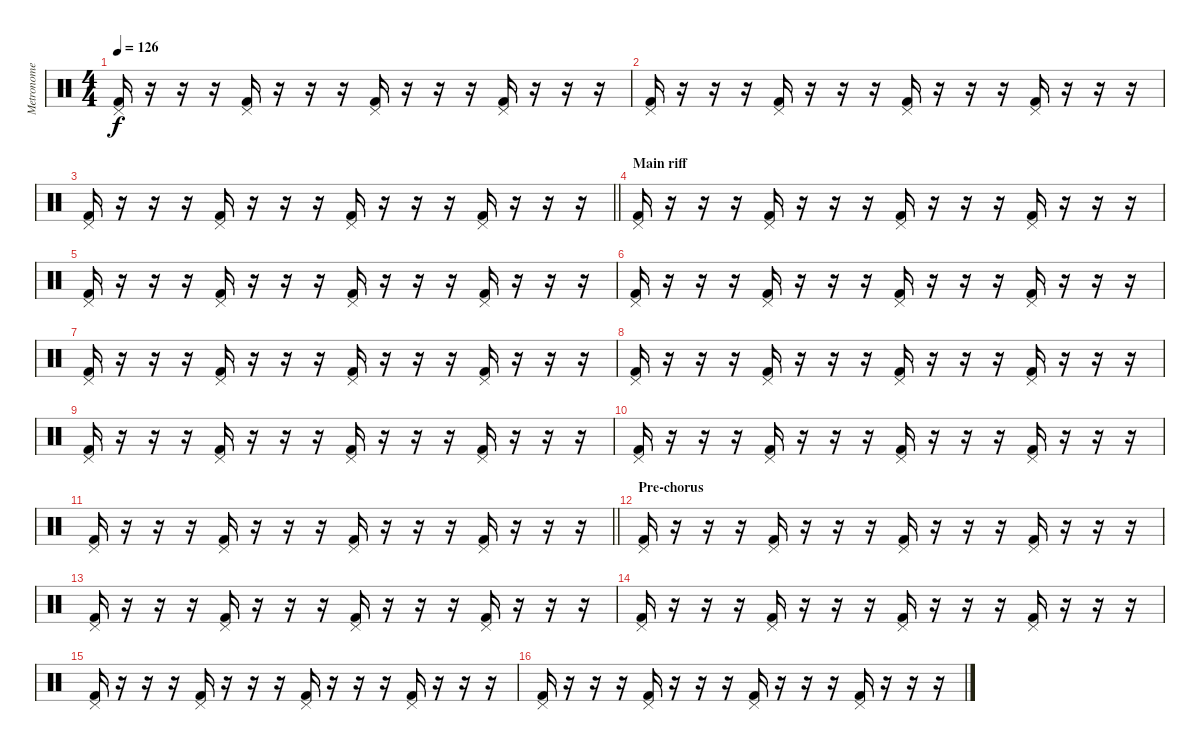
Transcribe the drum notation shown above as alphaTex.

\track ("Metronome" "Metronome") {mute instrument percussion}
\staff {score}
\articulation defaults
\ts (4 4)
\tempo 126
\clef neutral
\ks c
("Pedal Hi-Hat (hit)" "Kick (hit) 2").16{dy f} r.16 r.16 r.16 ("Pedal Hi-Hat (hit)" "Kick (hit) 2").16 r.16 r.16 r.16 ("Pedal Hi-Hat (hit)" "Kick (hit) 2").16 r.16 r.16 r.16 ("Pedal Hi-Hat (hit)" "Kick (hit) 2").16 r.16 r.16 r.16 |
("Pedal Hi-Hat (hit)" "Kick (hit) 2").16 r.16 r.16 r.16 ("Pedal Hi-Hat (hit)" "Kick (hit) 2").16 r.16 r.16 r.16 ("Pedal Hi-Hat (hit)" "Kick (hit) 2").16 r.16 r.16 r.16 ("Pedal Hi-Hat (hit)" "Kick (hit) 2").16 r.16 r.16 r.16 |
\barLineRight lightlight
("Pedal Hi-Hat (hit)" "Kick (hit) 2").16 r.16 r.16 r.16 ("Pedal Hi-Hat (hit)" "Kick (hit) 2").16 r.16 r.16 r.16 ("Pedal Hi-Hat (hit)" "Kick (hit) 2").16 r.16 r.16 r.16 ("Pedal Hi-Hat (hit)" "Kick (hit) 2").16 r.16 r.16 r.16 |
\section ("" "Main riff")
("Pedal Hi-Hat (hit)" "Kick (hit) 2").16 r.16 r.16 r.16 ("Pedal Hi-Hat (hit)" "Kick (hit) 2").16 r.16 r.16 r.16 ("Pedal Hi-Hat (hit)" "Kick (hit) 2").16 r.16 r.16 r.16 ("Pedal Hi-Hat (hit)" "Kick (hit) 2").16 r.16 r.16 r.16 |
("Pedal Hi-Hat (hit)" "Kick (hit) 2").16 r.16 r.16 r.16 ("Pedal Hi-Hat (hit)" "Kick (hit) 2").16 r.16 r.16 r.16 ("Pedal Hi-Hat (hit)" "Kick (hit) 2").16 r.16 r.16 r.16 ("Pedal Hi-Hat (hit)" "Kick (hit) 2").16 r.16 r.16 r.16 |
("Pedal Hi-Hat (hit)" "Kick (hit) 2").16 r.16 r.16 r.16 ("Pedal Hi-Hat (hit)" "Kick (hit) 2").16 r.16 r.16 r.16 ("Pedal Hi-Hat (hit)" "Kick (hit) 2").16 r.16 r.16 r.16 ("Pedal Hi-Hat (hit)" "Kick (hit) 2").16 r.16 r.16 r.16 |
("Pedal Hi-Hat (hit)" "Kick (hit) 2").16 r.16 r.16 r.16 ("Pedal Hi-Hat (hit)" "Kick (hit) 2").16 r.16 r.16 r.16 ("Pedal Hi-Hat (hit)" "Kick (hit) 2").16 r.16 r.16 r.16 ("Pedal Hi-Hat (hit)" "Kick (hit) 2").16 r.16 r.16 r.16 |
("Pedal Hi-Hat (hit)" "Kick (hit) 2").16 r.16 r.16 r.16 ("Pedal Hi-Hat (hit)" "Kick (hit) 2").16 r.16 r.16 r.16 ("Pedal Hi-Hat (hit)" "Kick (hit) 2").16 r.16 r.16 r.16 ("Pedal Hi-Hat (hit)" "Kick (hit) 2").16 r.16 r.16 r.16 |
("Pedal Hi-Hat (hit)" "Kick (hit) 2").16 r.16 r.16 r.16 ("Pedal Hi-Hat (hit)" "Kick (hit) 2").16 r.16 r.16 r.16 ("Pedal Hi-Hat (hit)" "Kick (hit) 2").16 r.16 r.16 r.16 ("Pedal Hi-Hat (hit)" "Kick (hit) 2").16 r.16 r.16 r.16 |
("Pedal Hi-Hat (hit)" "Kick (hit) 2").16 r.16 r.16 r.16 ("Pedal Hi-Hat (hit)" "Kick (hit) 2").16 r.16 r.16 r.16 ("Pedal Hi-Hat (hit)" "Kick (hit) 2").16 r.16 r.16 r.16 ("Pedal Hi-Hat (hit)" "Kick (hit) 2").16 r.16 r.16 r.16 |
\barLineRight lightlight
("Pedal Hi-Hat (hit)" "Kick (hit) 2").16 r.16 r.16 r.16 ("Pedal Hi-Hat (hit)" "Kick (hit) 2").16 r.16 r.16 r.16 ("Pedal Hi-Hat (hit)" "Kick (hit) 2").16 r.16 r.16 r.16 ("Pedal Hi-Hat (hit)" "Kick (hit) 2").16 r.16 r.16 r.16 |
\section ("" "Pre-chorus")
("Pedal Hi-Hat (hit)" "Kick (hit) 2").16 r.16 r.16 r.16 ("Pedal Hi-Hat (hit)" "Kick (hit) 2").16 r.16 r.16 r.16 ("Pedal Hi-Hat (hit)" "Kick (hit) 2").16 r.16 r.16 r.16 ("Pedal Hi-Hat (hit)" "Kick (hit) 2").16 r.16 r.16 r.16 |
("Pedal Hi-Hat (hit)" "Kick (hit) 2").16 r.16 r.16 r.16 ("Pedal Hi-Hat (hit)" "Kick (hit) 2").16 r.16 r.16 r.16 ("Pedal Hi-Hat (hit)" "Kick (hit) 2").16 r.16 r.16 r.16 ("Pedal Hi-Hat (hit)" "Kick (hit) 2").16 r.16 r.16 r.16 |
("Pedal Hi-Hat (hit)" "Kick (hit) 2").16 r.16 r.16 r.16 ("Pedal Hi-Hat (hit)" "Kick (hit) 2").16 r.16 r.16 r.16 ("Pedal Hi-Hat (hit)" "Kick (hit) 2").16 r.16 r.16 r.16 ("Pedal Hi-Hat (hit)" "Kick (hit) 2").16 r.16 r.16 r.16 |
("Pedal Hi-Hat (hit)" "Kick (hit) 2").16 r.16 r.16 r.16 ("Pedal Hi-Hat (hit)" "Kick (hit) 2").16 r.16 r.16 r.16 ("Pedal Hi-Hat (hit)" "Kick (hit) 2").16 r.16 r.16 r.16 ("Pedal Hi-Hat (hit)" "Kick (hit) 2").16 r.16 r.16 r.16 |
("Pedal Hi-Hat (hit)" "Kick (hit) 2").16 r.16 r.16 r.16 ("Pedal Hi-Hat (hit)" "Kick (hit) 2").16 r.16 r.16 r.16 ("Pedal Hi-Hat (hit)" "Kick (hit) 2").16 r.16 r.16 r.16 ("Pedal Hi-Hat (hit)" "Kick (hit) 2").16 r.16 r.16 r.16
